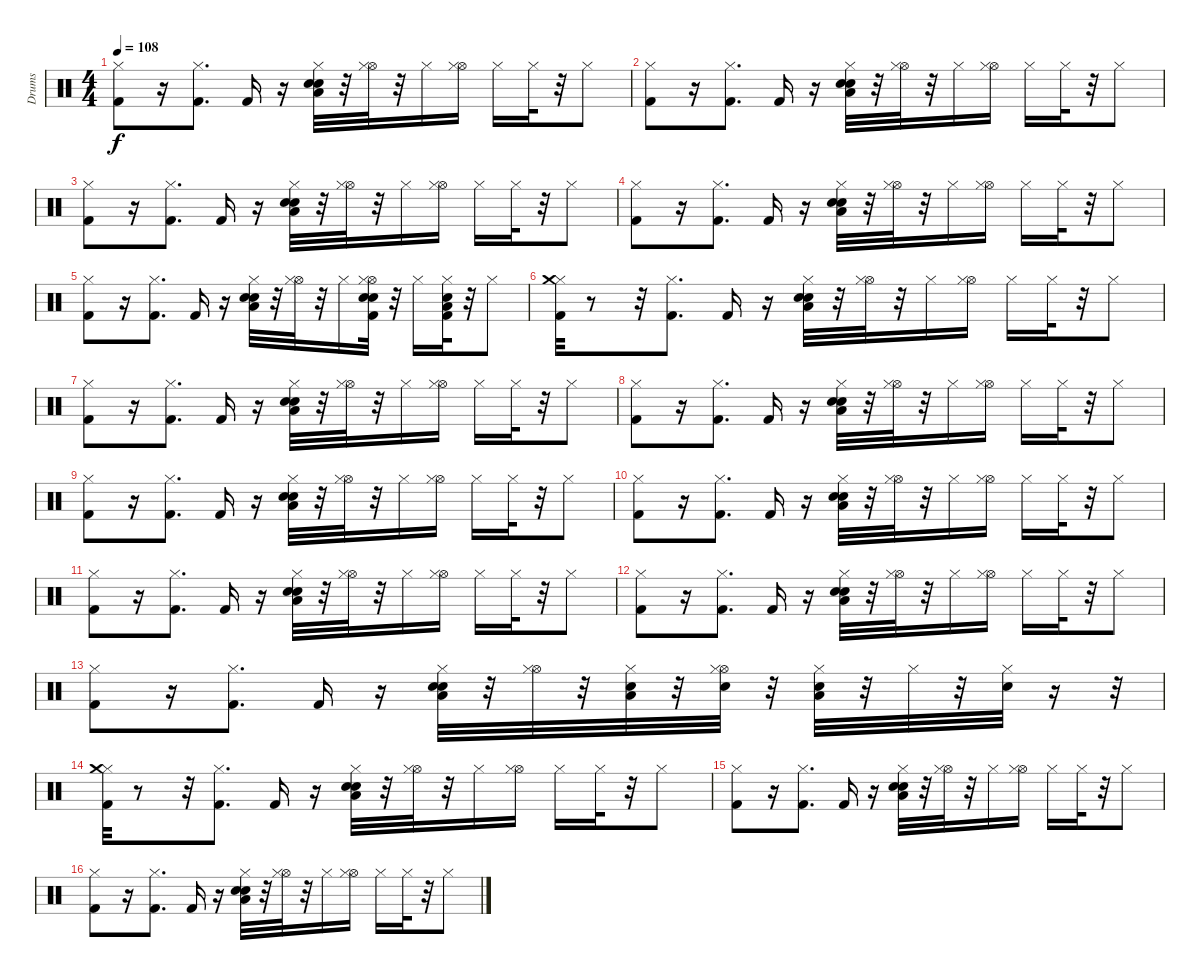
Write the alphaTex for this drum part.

\track ("Drums" "Drums") {instrument percussion}
\staff {score}
\articulation defaults
\ts (4 4)
\tempo 108
\clef neutral
\ks c
("Hi-Hat (closed)" "Kick (hit) 2").8{dy f} r.16 ("Kick (hit) 2" "Hi-Hat (closed)").8{d} "Kick (hit) 2".16 r.16 ("Low Floor Tom (hit)" "Electric Snare (hit)" "Snare (hit) 2" "Hi-Hat (closed)").32 r.32 ("Hi-Hat (open)" "Hi-Hat (closed)").32 r.32 "Hi-Hat (closed)".16 ("Hi-Hat (open)" "Hi-Hat (closed)").16 "Hi-Hat (closed)".16 "Hi-Hat (closed)".32 r.32 "Hi-Hat (closed)".8 |
("Hi-Hat (closed)" "Kick (hit) 2").8 r.16 ("Kick (hit) 2" "Hi-Hat (closed)").8{d} "Kick (hit) 2".16 r.16 ("Low Floor Tom (hit)" "Electric Snare (hit)" "Snare (hit) 2" "Hi-Hat (closed)").32 r.32 ("Hi-Hat (open)" "Hi-Hat (closed)").32 r.32 "Hi-Hat (closed)".16 ("Hi-Hat (open)" "Hi-Hat (closed)").16 "Hi-Hat (closed)".16 "Hi-Hat (closed)".32 r.32 "Hi-Hat (closed)".8 |
("Hi-Hat (closed)" "Kick (hit) 2").8 r.16 ("Kick (hit) 2" "Hi-Hat (closed)").8{d} "Kick (hit) 2".16 r.16 ("Low Floor Tom (hit)" "Electric Snare (hit)" "Snare (hit) 2" "Hi-Hat (closed)").32 r.32 ("Hi-Hat (open)" "Hi-Hat (closed)").32 r.32 "Hi-Hat (closed)".16 ("Hi-Hat (open)" "Hi-Hat (closed)").16 "Hi-Hat (closed)".16 "Hi-Hat (closed)".32 r.32 "Hi-Hat (closed)".8 |
("Hi-Hat (closed)" "Kick (hit) 2").8 r.16 ("Kick (hit) 2" "Hi-Hat (closed)").8{d} "Kick (hit) 2".16 r.16 ("Low Floor Tom (hit)" "Electric Snare (hit)" "Snare (hit) 2" "Hi-Hat (closed)").32 r.32 ("Hi-Hat (open)" "Hi-Hat (closed)").32 r.32 "Hi-Hat (closed)".16 ("Hi-Hat (open)" "Hi-Hat (closed)").16 "Hi-Hat (closed)".16 "Hi-Hat (closed)".32 r.32 "Hi-Hat (closed)".8 |
("Hi-Hat (closed)" "Kick (hit) 2").8 r.16 ("Kick (hit) 2" "Hi-Hat (closed)").8{d} "Kick (hit) 2".16 r.16 ("Low Floor Tom (hit)" "Electric Snare (hit)" "Snare (hit) 2" "Hi-Hat (closed)").32 r.32 ("Hi-Hat (open)" "Hi-Hat (closed)").32 r.32 "Hi-Hat (closed)".16 ("Hi-Hat (open)" "Hi-Hat (closed)" "Kick (hit) 2" "Electric Snare (hit)" "Snare (hit) 2").32 r.32 "Hi-Hat (closed)".16 ("Snare (hit) 2" "Kick (hit) 2" "Low Floor Tom (hit)" "Hi-Hat (closed)").32 r.32 "Hi-Hat (closed)".8 |
("Hi-Hat (closed)" "Kick (hit) 2" "Crash medium (hit)").32 r.8 r.32 ("Kick (hit) 2" "Hi-Hat (closed)").8{d} "Kick (hit) 2".16 r.16 ("Low Floor Tom (hit)" "Electric Snare (hit)" "Snare (hit) 2" "Hi-Hat (closed)").32 r.32 ("Hi-Hat (open)" "Hi-Hat (closed)").32 r.32 "Hi-Hat (closed)".16 ("Hi-Hat (open)" "Hi-Hat (closed)").16 "Hi-Hat (closed)".16 "Hi-Hat (closed)".32 r.32 "Hi-Hat (closed)".8 |
("Hi-Hat (closed)" "Kick (hit) 2").8 r.16 ("Kick (hit) 2" "Hi-Hat (closed)").8{d} "Kick (hit) 2".16 r.16 ("Low Floor Tom (hit)" "Electric Snare (hit)" "Snare (hit) 2" "Hi-Hat (closed)").32 r.32 ("Hi-Hat (open)" "Hi-Hat (closed)").32 r.32 "Hi-Hat (closed)".16 ("Hi-Hat (open)" "Hi-Hat (closed)").16 "Hi-Hat (closed)".16 "Hi-Hat (closed)".32 r.32 "Hi-Hat (closed)".8 |
("Hi-Hat (closed)" "Kick (hit) 2").8 r.16 ("Kick (hit) 2" "Hi-Hat (closed)").8{d} "Kick (hit) 2".16 r.16 ("Low Floor Tom (hit)" "Electric Snare (hit)" "Snare (hit) 2" "Hi-Hat (closed)").32 r.32 ("Hi-Hat (open)" "Hi-Hat (closed)").32 r.32 "Hi-Hat (closed)".16 ("Hi-Hat (open)" "Hi-Hat (closed)").16 "Hi-Hat (closed)".16 "Hi-Hat (closed)".32 r.32 "Hi-Hat (closed)".8 |
("Hi-Hat (closed)" "Kick (hit) 2").8 r.16 ("Kick (hit) 2" "Hi-Hat (closed)").8{d} "Kick (hit) 2".16 r.16 ("Low Floor Tom (hit)" "Electric Snare (hit)" "Snare (hit) 2" "Hi-Hat (closed)").32 r.32 ("Hi-Hat (open)" "Hi-Hat (closed)").32 r.32 "Hi-Hat (closed)".16 ("Hi-Hat (open)" "Hi-Hat (closed)").16 "Hi-Hat (closed)".16 "Hi-Hat (closed)".32 r.32 "Hi-Hat (closed)".8 |
("Hi-Hat (closed)" "Kick (hit) 2").8 r.16 ("Kick (hit) 2" "Hi-Hat (closed)").8{d} "Kick (hit) 2".16 r.16 ("Low Floor Tom (hit)" "Electric Snare (hit)" "Snare (hit) 2" "Hi-Hat (closed)").32 r.32 ("Hi-Hat (open)" "Hi-Hat (closed)").32 r.32 "Hi-Hat (closed)".16 ("Hi-Hat (open)" "Hi-Hat (closed)").16 "Hi-Hat (closed)".16 "Hi-Hat (closed)".32 r.32 "Hi-Hat (closed)".8 |
("Hi-Hat (closed)" "Kick (hit) 2").8 r.16 ("Kick (hit) 2" "Hi-Hat (closed)").8{d} "Kick (hit) 2".16 r.16 ("Low Floor Tom (hit)" "Electric Snare (hit)" "Snare (hit) 2" "Hi-Hat (closed)").32 r.32 ("Hi-Hat (open)" "Hi-Hat (closed)").32 r.32 "Hi-Hat (closed)".16 ("Hi-Hat (open)" "Hi-Hat (closed)").16 "Hi-Hat (closed)".16 "Hi-Hat (closed)".32 r.32 "Hi-Hat (closed)".8 |
("Hi-Hat (closed)" "Kick (hit) 2").8 r.16 ("Kick (hit) 2" "Hi-Hat (closed)").8{d} "Kick (hit) 2".16 r.16 ("Low Floor Tom (hit)" "Electric Snare (hit)" "Snare (hit) 2" "Hi-Hat (closed)").32 r.32 ("Hi-Hat (open)" "Hi-Hat (closed)").32 r.32 "Hi-Hat (closed)".16 ("Hi-Hat (open)" "Hi-Hat (closed)").16 "Hi-Hat (closed)".16 "Hi-Hat (closed)".32 r.32 "Hi-Hat (closed)".8 |
("Hi-Hat (closed)" "Kick (hit) 2").8 r.16 ("Kick (hit) 2" "Hi-Hat (closed)").8{d} "Kick (hit) 2".16 r.16 ("Low Floor Tom (hit)" "Electric Snare (hit)" "Snare (hit) 2" "Hi-Hat (closed)").32 r.32 ("Hi-Hat (open)" "Hi-Hat (closed)").32 r.32 ("Hi-Hat (closed)" "Electric Snare (hit)" "Low Tom (hit)").32 r.32 ("Hi-Hat (open)" "Hi-Hat (closed)" "Electric Snare (hit)").32 r.32 ("Hi-Hat (closed)" "Electric Snare (hit)" "Low Tom (hit)").32 r.32 "Hi-Hat (closed)".32 r.32 ("Hi-Hat (closed)" "Electric Snare (hit)").32 r.16 r.32 |
("Hi-Hat (closed)" "Kick (hit) 2" "Crash medium (hit)").32 r.8 r.32 ("Kick (hit) 2" "Hi-Hat (closed)").8{d} "Kick (hit) 2".16 r.16 ("Low Floor Tom (hit)" "Electric Snare (hit)" "Snare (hit) 2" "Hi-Hat (closed)").32 r.32 ("Hi-Hat (open)" "Hi-Hat (closed)").32 r.32 "Hi-Hat (closed)".16 ("Hi-Hat (open)" "Hi-Hat (closed)").16 "Hi-Hat (closed)".16 "Hi-Hat (closed)".32 r.32 "Hi-Hat (closed)".8 |
("Hi-Hat (closed)" "Kick (hit) 2").8 r.16 ("Kick (hit) 2" "Hi-Hat (closed)").8{d} "Kick (hit) 2".16 r.16 ("Low Floor Tom (hit)" "Electric Snare (hit)" "Snare (hit) 2" "Hi-Hat (closed)").32 r.32 ("Hi-Hat (open)" "Hi-Hat (closed)").32 r.32 "Hi-Hat (closed)".16 ("Hi-Hat (open)" "Hi-Hat (closed)").16 "Hi-Hat (closed)".16 "Hi-Hat (closed)".32 r.32 "Hi-Hat (closed)".8 |
("Hi-Hat (closed)" "Kick (hit) 2").8 r.16 ("Kick (hit) 2" "Hi-Hat (closed)").8{d} "Kick (hit) 2".16 r.16 ("Low Floor Tom (hit)" "Electric Snare (hit)" "Snare (hit) 2" "Hi-Hat (closed)").32 r.32 ("Hi-Hat (open)" "Hi-Hat (closed)").32 r.32 "Hi-Hat (closed)".16 ("Hi-Hat (open)" "Hi-Hat (closed)").16 "Hi-Hat (closed)".16 "Hi-Hat (closed)".32 r.32 "Hi-Hat (closed)".8
